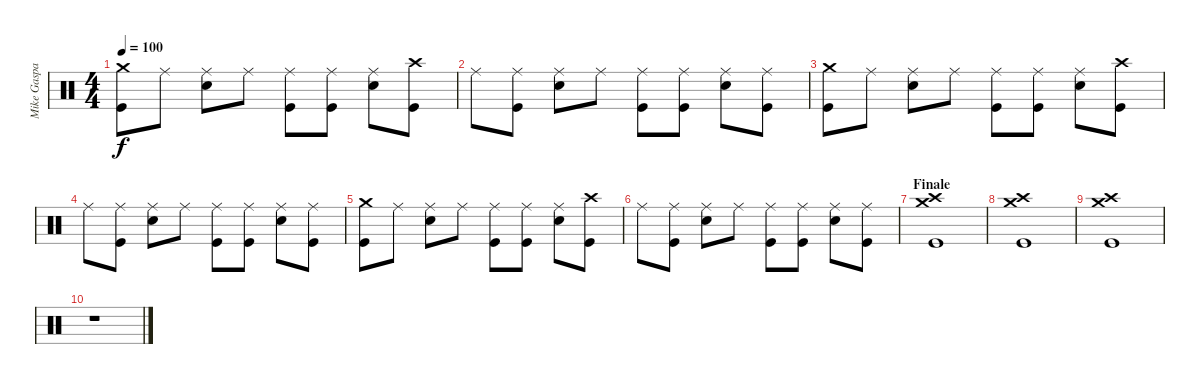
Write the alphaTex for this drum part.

\track ("Mike Gaspar" "Mike Gaspa") {instrument percussion}
\staff {score}
\articulation defaults
\ts (4 4)
\tempo 100
\clef neutral
\ks c
("Crash medium (hit)" "Kick (hit)").8{dy f} "Ride (middle)".8 ("Ride (middle)" "Electric Snare (hit)").8 "Ride (middle)".8 ("Ride (middle)" "Kick (hit)").8 ("Ride (middle)" "Kick (hit)").8 ("Ride (middle)" "Electric Snare (hit)").8 ("Crash high (hit)" "Kick (hit)").8 |
"Ride (middle)".8 ("Ride (middle)" "Kick (hit)").8 ("Ride (middle)" "Electric Snare (hit)").8 "Ride (middle)".8 ("Ride (middle)" "Kick (hit)").8 ("Ride (middle)" "Kick (hit)").8 ("Ride (middle)" "Electric Snare (hit)").8 ("Ride (middle)" "Kick (hit)").8 |
("Crash medium (hit)" "Kick (hit)").8 "Ride (middle)".8 ("Ride (middle)" "Electric Snare (hit)").8 "Ride (middle)".8 ("Ride (middle)" "Kick (hit)").8 ("Ride (middle)" "Kick (hit)").8 ("Ride (middle)" "Electric Snare (hit)").8 ("Crash high (hit)" "Kick (hit)").8 |
"Ride (middle)".8 ("Ride (middle)" "Kick (hit)").8 ("Ride (middle)" "Electric Snare (hit)").8 "Ride (middle)".8 ("Ride (middle)" "Kick (hit)").8 ("Ride (middle)" "Kick (hit)").8 ("Ride (middle)" "Electric Snare (hit)").8 ("Ride (middle)" "Kick (hit)").8 |
("Crash medium (hit)" "Kick (hit)").8 "Ride (middle)".8 ("Ride (middle)" "Electric Snare (hit)").8 "Ride (middle)".8 ("Ride (middle)" "Kick (hit)").8 ("Ride (middle)" "Kick (hit)").8 ("Ride (middle)" "Electric Snare (hit)").8 ("Crash high (hit)" "Kick (hit)").8 |
"Ride (middle)".8 ("Ride (middle)" "Kick (hit)").8 ("Ride (middle)" "Electric Snare (hit)").8 "Ride (middle)".8 ("Ride (middle)" "Kick (hit)").8 ("Ride (middle)" "Kick (hit)").8 ("Ride (middle)" "Electric Snare (hit)").8 ("Ride (middle)" "Kick (hit)").8 |
\section ("" "Finale")
("Crash high (hit)" "Crash medium (hit)" "Kick (hit)").1 |
("Crash high (hit)" "Crash medium (hit)" "Kick (hit)").1 |
("Crash high (hit)" "Crash medium (hit)" "Kick (hit)").1 |
r.1
